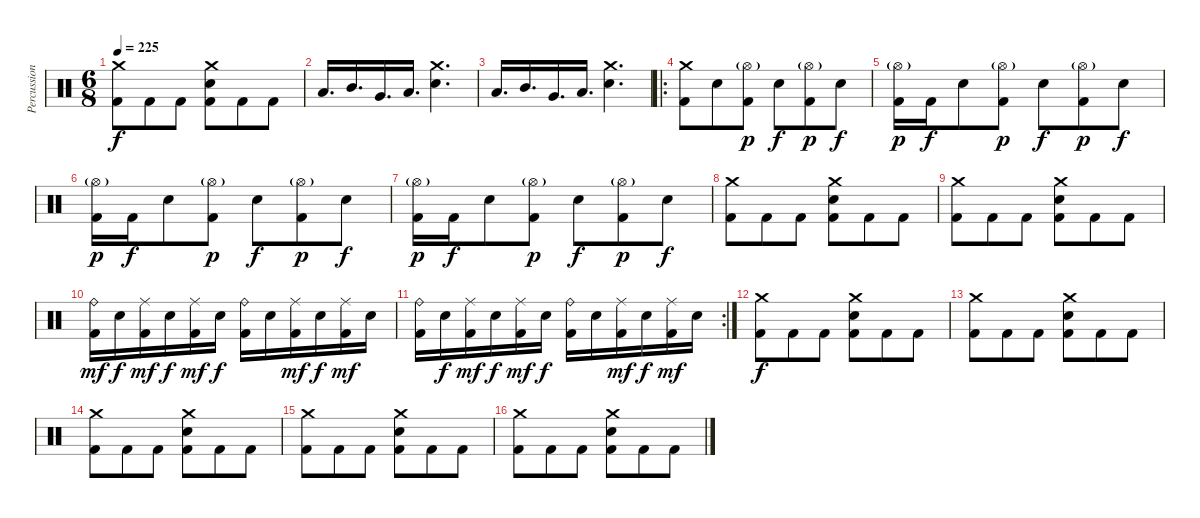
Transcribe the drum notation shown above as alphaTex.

\track ("Percussion" "Percussion") {instrument percussion}
\staff {score}
\articulation defaults
\ts (6 8)
\tempo 225
\clef neutral
\ks c
("Crash medium (hit)" "Kick (hit) 2").8{dy f} "Kick (hit) 2".8 "Kick (hit) 2".8 ("Crash medium (hit)" "Electric Snare (hit)" "Kick (hit) 2").8 "Kick (hit) 2".8 "Kick (hit) 2".8 |
"Low Tom (hit)".16{d} "Mid Tom (hit)".16{d} "Very Low Tom (hit)".16{d} "Low Tom (hit)".16{d} ("Crash medium (hit)" "Electric Snare (hit)").4{d} |
"Low Tom (hit)".16{d} "Mid Tom (hit)".16{d} "Very Low Tom (hit)".16{d} "Low Tom (hit)".16{d} ("Crash medium (hit)" "Electric Snare (hit)").4{d} |
\ro
("Crash medium (hit)" "Kick (hit) 2").8 "Electric Snare (hit)".8 ("Hi-Hat (open)"{g} "Kick (hit) 2").8{dy p} "Electric Snare (hit)".8{dy f} ("Hi-Hat (open)"{g} "Kick (hit) 2").8{dy p} "Electric Snare (hit)".8{dy f} |
("Hi-Hat (open)"{g} "Kick (hit) 2").16{dy p} "Kick (hit) 2".16{dy f} "Electric Snare (hit)".8 ("Hi-Hat (open)"{g} "Kick (hit) 2").8{dy p} "Electric Snare (hit)".8{dy f} ("Hi-Hat (open)"{g} "Kick (hit) 2").8{dy p} "Electric Snare (hit)".8{dy f} |
("Hi-Hat (open)"{g} "Kick (hit) 2").16{dy p} "Kick (hit) 2".16{dy f} "Electric Snare (hit)".8 ("Hi-Hat (open)"{g} "Kick (hit) 2").8{dy p} "Electric Snare (hit)".8{dy f} ("Hi-Hat (open)"{g} "Kick (hit) 2").8{dy p} "Electric Snare (hit)".8{dy f} |
("Hi-Hat (open)"{g} "Kick (hit) 2").16{dy p} "Kick (hit) 2".16{dy f} "Electric Snare (hit)".8 ("Hi-Hat (open)"{g} "Kick (hit) 2").8{dy p} "Electric Snare (hit)".8{dy f} ("Hi-Hat (open)"{g} "Kick (hit) 2").8{dy p} "Electric Snare (hit)".8{dy f} |
("Crash medium (hit)" "Kick (hit) 2").8 "Kick (hit) 2".8 "Kick (hit) 2".8 ("Crash medium (hit)" "Electric Snare (hit)" "Kick (hit) 2").8 "Kick (hit) 2".8 "Kick (hit) 2".8 |
("Crash medium (hit)" "Kick (hit) 2").8 "Kick (hit) 2".8 "Kick (hit) 2".8 ("Crash medium (hit)" "Electric Snare (hit)" "Kick (hit) 2").8 "Kick (hit) 2".8 "Kick (hit) 2".8 |
("Ride (bell)" "Kick (hit) 2").16{dy mf} "Electric Snare (hit)".16{dy f} ("Ride (middle)" "Kick (hit) 2").16{dy mf} "Electric Snare (hit)".16{dy f} ("Ride (middle)" "Kick (hit) 2").16{dy mf} "Electric Snare (hit)".16{dy f} ("Ride (bell)" "Kick (hit) 2").16 "Electric Snare (hit)".16 ("Ride (middle)" "Kick (hit) 2").16{dy mf} "Electric Snare (hit)".16{dy f} ("Ride (middle)" "Kick (hit) 2").16{dy mf} "Electric Snare (hit)".16 |
\rc 2
("Ride (bell)" "Kick (hit) 2").16 "Electric Snare (hit)".16{dy f} ("Ride (middle)" "Kick (hit) 2").16{dy mf} "Electric Snare (hit)".16{dy f} ("Ride (middle)" "Kick (hit) 2").16{dy mf} "Electric Snare (hit)".16{dy f} ("Ride (bell)" "Kick (hit) 2").16 "Electric Snare (hit)".16 ("Ride (middle)" "Kick (hit) 2").16{dy mf} "Electric Snare (hit)".16{dy f} ("Ride (middle)" "Kick (hit) 2").16{dy mf} "Electric Snare (hit)".16 |
("Crash medium (hit)" "Kick (hit) 2").8{dy f} "Kick (hit) 2".8 "Kick (hit) 2".8 ("Crash medium (hit)" "Electric Snare (hit)" "Kick (hit) 2").8 "Kick (hit) 2".8 "Kick (hit) 2".8 |
("Crash medium (hit)" "Kick (hit) 2").8 "Kick (hit) 2".8 "Kick (hit) 2".8 ("Crash medium (hit)" "Electric Snare (hit)" "Kick (hit) 2").8 "Kick (hit) 2".8 "Kick (hit) 2".8 |
("Crash medium (hit)" "Kick (hit) 2").8 "Kick (hit) 2".8 "Kick (hit) 2".8 ("Crash medium (hit)" "Electric Snare (hit)" "Kick (hit) 2").8 "Kick (hit) 2".8 "Kick (hit) 2".8 |
("Crash medium (hit)" "Kick (hit) 2").8 "Kick (hit) 2".8 "Kick (hit) 2".8 ("Crash medium (hit)" "Electric Snare (hit)" "Kick (hit) 2").8 "Kick (hit) 2".8 "Kick (hit) 2".8 |
("Crash medium (hit)" "Kick (hit) 2").8 "Kick (hit) 2".8 "Kick (hit) 2".8 ("Crash medium (hit)" "Electric Snare (hit)" "Kick (hit) 2").8 "Kick (hit) 2".8 "Kick (hit) 2".8
